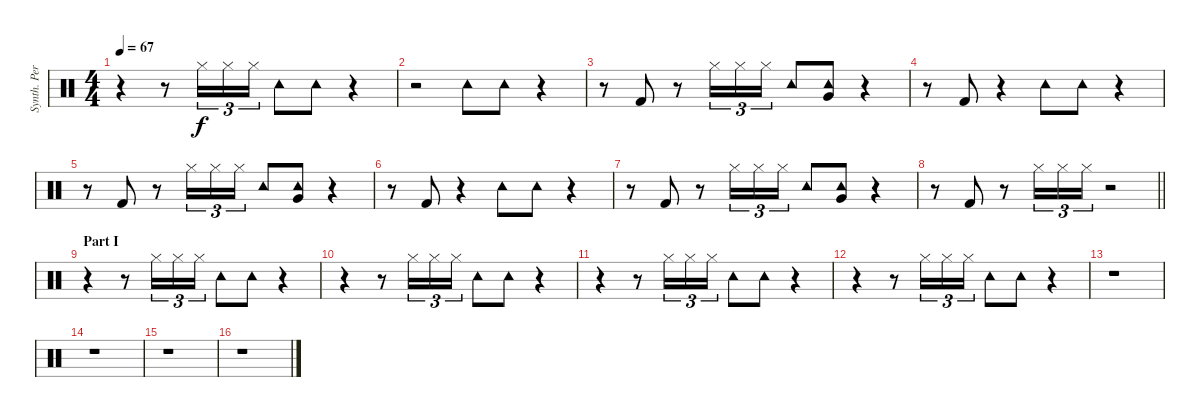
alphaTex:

\track ("Synth. Percussion" "Synth. Per") {instrument percussion}
\staff {score}
\articulation defaults
\ts (4 4)
\tempo 67
\clef neutral
\ks c
r.4{dy f} r.8 "Hi-Hat (closed)".16{tu (3 2)} "Hi-Hat (closed)".16{tu (3 2)} "Hi-Hat (closed)".16{tu (3 2)} "Tambourine (hit)".8 "Tambourine (hit)".8 r.4 |
r.2 "Tambourine (hit)".8 "Tambourine (hit)".8 r.4 |
r.8 "Kick (hit) 2".8 r.8 "Hi-Hat (closed)".16{tu (3 2)} "Hi-Hat (closed)".16{tu (3 2)} "Hi-Hat (closed)".16{tu (3 2)} "Tambourine (hit)".8 ("Tambourine (hit)" "Very Low Tom (hit)").8 r.4 |
r.8 "Kick (hit) 2".8 r.4 "Tambourine (hit)".8 "Tambourine (hit)".8 r.4 |
r.8 "Kick (hit) 2".8 r.8 "Hi-Hat (closed)".16{tu (3 2)} "Hi-Hat (closed)".16{tu (3 2)} "Hi-Hat (closed)".16{tu (3 2)} "Tambourine (hit)".8 ("Tambourine (hit)" "Very Low Tom (hit)").8 r.4 |
r.8 "Kick (hit) 2".8 r.4 "Tambourine (hit)".8 "Tambourine (hit)".8 r.4 |
r.8 "Kick (hit) 2".8 r.8 "Hi-Hat (closed)".16{tu (3 2)} "Hi-Hat (closed)".16{tu (3 2)} "Hi-Hat (closed)".16{tu (3 2)} "Tambourine (hit)".8 ("Tambourine (hit)" "Very Low Tom (hit)").8 r.4 |
\barLineRight lightlight
r.8 "Kick (hit) 2".8 r.8 "Hi-Hat (closed)".16{tu (3 2)} "Hi-Hat (closed)".16{tu (3 2)} "Hi-Hat (closed)".16{tu (3 2)} r.2 |
\section ("" "Part I")
r.4 r.8 "Hi-Hat (closed)".16{tu (3 2)} "Hi-Hat (closed)".16{tu (3 2)} "Hi-Hat (closed)".16{tu (3 2)} "Tambourine (hit)".8 "Tambourine (hit)".8 r.4 |
r.4 r.8 "Hi-Hat (closed)".16{tu (3 2)} "Hi-Hat (closed)".16{tu (3 2)} "Hi-Hat (closed)".16{tu (3 2)} "Tambourine (hit)".8 "Tambourine (hit)".8 r.4 |
r.4 r.8 "Hi-Hat (closed)".16{tu (3 2)} "Hi-Hat (closed)".16{tu (3 2)} "Hi-Hat (closed)".16{tu (3 2)} "Tambourine (hit)".8 "Tambourine (hit)".8 r.4 |
r.4 r.8 "Hi-Hat (closed)".16{tu (3 2)} "Hi-Hat (closed)".16{tu (3 2)} "Hi-Hat (closed)".16{tu (3 2)} "Tambourine (hit)".8 "Tambourine (hit)".8 r.4 |
r.1 |
r.1 |
r.1 |
r.1
